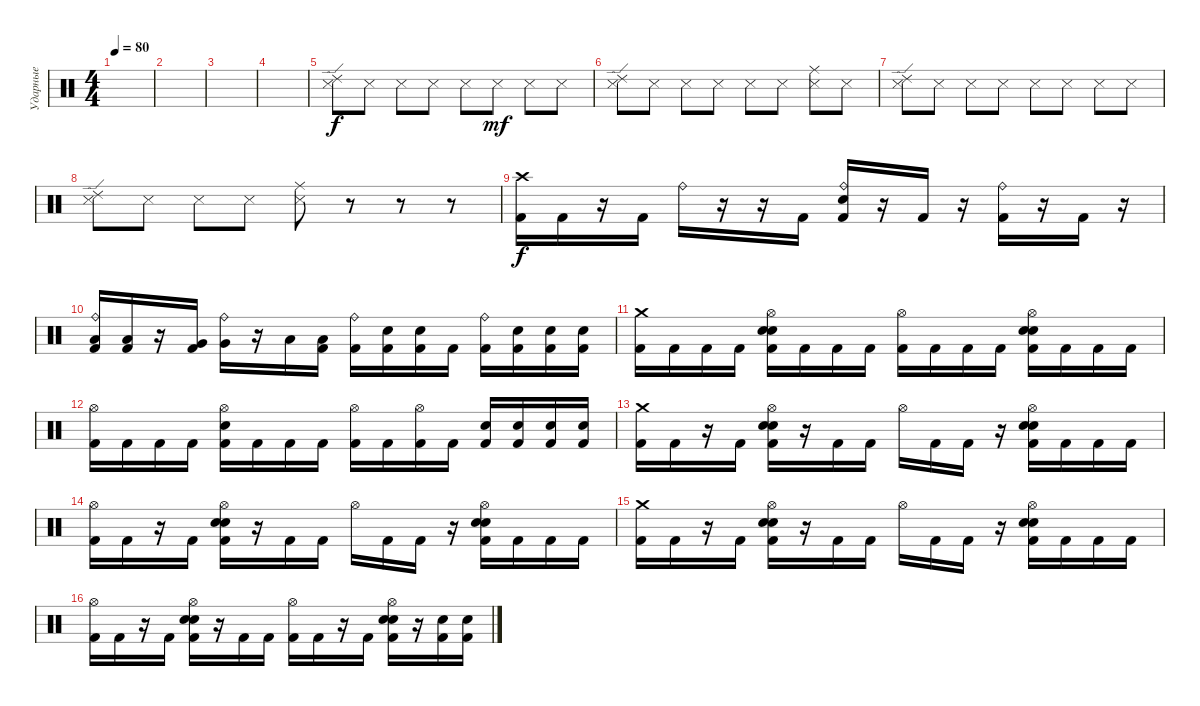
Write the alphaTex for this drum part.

\track ("Ударные" "Ударные") {instrument percussion}
\staff {score}
\articulation defaults
\ts (4 4)
\tempo 80
\clef neutral
\ks c
|
|
|
|
("Metronome (hit)" "Ride (edge) 2").8 "Metronome (hit)".8 "Metronome (hit)".8 "Metronome (hit)".8 "Metronome (hit)".8{dy f} "Metronome (hit)".8{dy mf} "Metronome (hit)".8 "Metronome (hit)".8 |
("Metronome (hit)" "Ride (edge) 2").8 "Metronome (hit)".8 "Metronome (hit)".8 "Metronome (hit)".8 "Metronome (hit)".8 "Metronome (hit)".8 ("Metronome (hit)" "Ride (middle)").8 "Metronome (hit)".8 |
("Metronome (hit)" "Ride (edge) 2").8 "Metronome (hit)".8 "Metronome (hit)".8 "Metronome (hit)".8 "Metronome (hit)".8 "Metronome (hit)".8 "Metronome (hit)".8 "Metronome (hit)".8 |
("Metronome (hit)" "Ride (edge) 2").8 "Metronome (hit)".8 "Metronome (hit)".8 "Metronome (hit)".8 ("Metronome (hit)" "Ride (middle)").8 r.8 r.8 r.8 |
("Kick (hit) 2" "Crash high (hit)").16{dy f} "Kick (hit) 2".16 r.16 "Kick (hit) 2".16 "Ride (bell)".16 r.16 r.16 "Kick (hit) 2".16 ("Kick (hit) 2" "Electric Snare (hit)" "Ride (bell)").16 r.16 "Kick (hit) 2".16 r.16 ("Kick (hit) 2" "Ride (bell)").16 r.16 "Kick (hit) 2".16 r.16 |
("Kick (hit) 2" "Low Tom (hit)" "Ride (bell)").16 ("Kick (hit) 2" "Low Tom (hit)").16 r.16 ("Kick (hit) 2" "Very Low Tom (hit)").16 ("Very Low Tom (hit)" "Ride (bell)").16 r.16 "Low Floor Tom (hit)".16 ("Kick (hit) 2" "Low Floor Tom (hit)").16 ("Kick (hit) 2" "Ride (bell)").16 ("Kick (hit) 2" "Electric Snare (hit)").16 ("Kick (hit) 2" "Electric Snare (hit)").16 "Kick (hit) 2".16 ("Kick (hit) 2" "Ride (bell)").16 ("Kick (hit) 2" "Electric Snare (hit)").16 ("Kick (hit) 2" "Electric Snare (hit)").16 ("Kick (hit) 2" "Electric Snare (hit)").16 |
("Kick (hit) 2" "Crash medium (hit)").16 "Kick (hit) 2".16 "Kick (hit) 2".16 "Kick (hit) 2".16 ("Kick (hit) 2" "Electric Snare (hit)" "Electric Snare (hit)" "Hi-Hat (open)").16 "Kick (hit) 2".16 "Kick (hit) 2".16 "Kick (hit) 2".16 ("Kick (hit) 2" "Hi-Hat (open)").16 "Kick (hit) 2".16 "Kick (hit) 2".16 "Kick (hit) 2".16 ("Kick (hit) 2" "Electric Snare (hit)" "Electric Snare (hit)" "Hi-Hat (open)").16 "Kick (hit) 2".16 "Kick (hit) 2".16 "Kick (hit) 2".16 |
("Kick (hit) 2" "Hi-Hat (open)").16 "Kick (hit) 2".16 "Kick (hit) 2".16 "Kick (hit) 2".16 ("Kick (hit) 2" "Electric Snare (hit)" "Hi-Hat (open)").16 "Kick (hit) 2".16 "Kick (hit) 2".16 "Kick (hit) 2".16 ("Kick (hit) 2" "Hi-Hat (open)").16 "Kick (hit) 2".16 ("Kick (hit) 2" "Hi-Hat (open)").16 "Kick (hit) 2".16 ("Kick (hit) 2" "Electric Snare (hit)").16 ("Kick (hit) 2" "Electric Snare (hit)").16 ("Kick (hit) 2" "Electric Snare (hit)").16 ("Kick (hit) 2" "Electric Snare (hit)").16 |
("Kick (hit) 2" "Crash medium (hit)").16 "Kick (hit) 2".16 r.16 "Kick (hit) 2".16 ("Kick (hit) 2" "Electric Snare (hit)" "Electric Snare (hit)" "Hi-Hat (open)").16 r.16 "Kick (hit) 2".16 "Kick (hit) 2".16 "Hi-Hat (open)".16 "Kick (hit) 2".16 "Kick (hit) 2".16 r.16 ("Kick (hit) 2" "Electric Snare (hit)" "Electric Snare (hit)" "Hi-Hat (open)").16 "Kick (hit) 2".16 "Kick (hit) 2".16 "Kick (hit) 2".16 |
("Kick (hit) 2" "Hi-Hat (open)").16 "Kick (hit) 2".16 r.16 "Kick (hit) 2".16 ("Kick (hit) 2" "Electric Snare (hit)" "Electric Snare (hit)" "Hi-Hat (open)").16 r.16 "Kick (hit) 2".16 "Kick (hit) 2".16 "Hi-Hat (open)".16 "Kick (hit) 2".16 "Kick (hit) 2".16 r.16 ("Kick (hit) 2" "Electric Snare (hit)" "Electric Snare (hit)" "Hi-Hat (open)").16 "Kick (hit) 2".16 "Kick (hit) 2".16 "Kick (hit) 2".16 |
("Kick (hit) 2" "Crash medium (hit)").16 "Kick (hit) 2".16 r.16 "Kick (hit) 2".16 ("Kick (hit) 2" "Electric Snare (hit)" "Electric Snare (hit)" "Hi-Hat (open)").16 r.16 "Kick (hit) 2".16 "Kick (hit) 2".16 "Hi-Hat (open)".16 "Kick (hit) 2".16 "Kick (hit) 2".16 r.16 ("Kick (hit) 2" "Electric Snare (hit)" "Electric Snare (hit)" "Hi-Hat (open)").16 "Kick (hit) 2".16 "Kick (hit) 2".16 "Kick (hit) 2".16 |
("Kick (hit) 2" "Hi-Hat (open)").16 "Kick (hit) 2".16 r.16 "Kick (hit) 2".16 ("Kick (hit) 2" "Electric Snare (hit)" "Electric Snare (hit)" "Hi-Hat (open)").16 r.16 "Kick (hit) 2".16 "Kick (hit) 2".16 ("Kick (hit) 2" "Hi-Hat (open)").16 "Kick (hit) 2".16 r.16 "Kick (hit) 2".16 ("Kick (hit) 2" "Electric Snare (hit)" "Electric Snare (hit)" "Hi-Hat (open)").16 r.16 ("Kick (hit) 2" "Electric Snare (hit)").16 ("Kick (hit) 2" "Electric Snare (hit)").16
